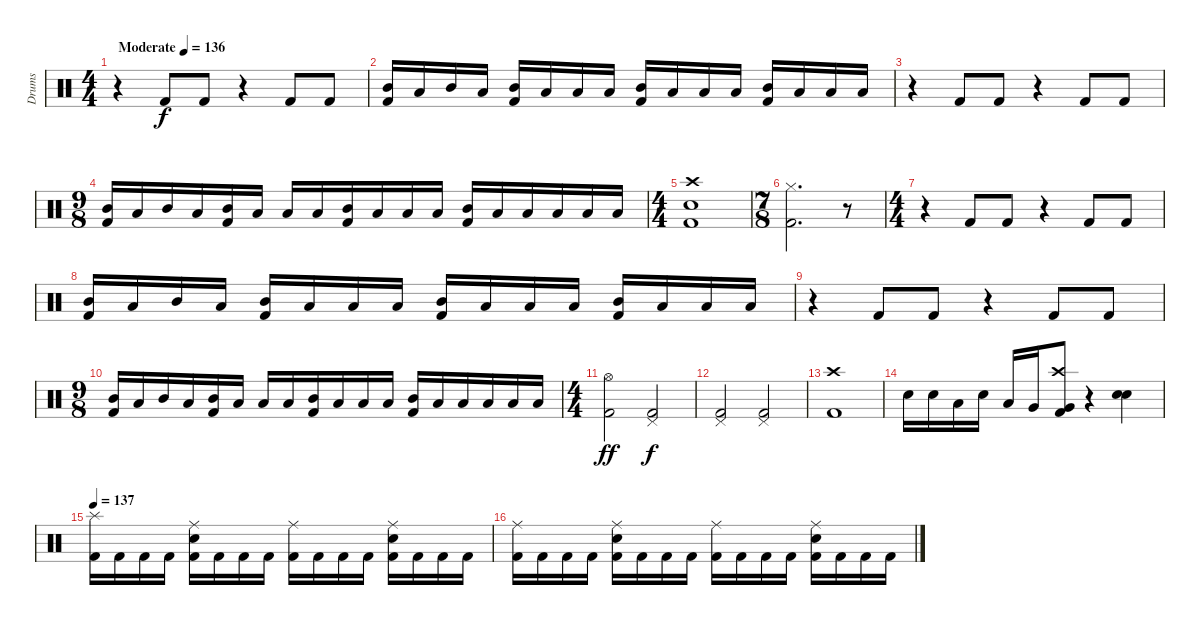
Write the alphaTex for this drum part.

\track ("Drums" "Drums") {instrument percussion}
\staff {score}
\articulation defaults
\ts (4 4)
\tempo (136 "Moderate")
\clef neutral
\ks c
r.4{dy f} "Kick (hit) 2".8 "Kick (hit) 2".8 r.4 "Kick (hit) 2".8 "Kick (hit) 2".8 |
("Mid Tom (hit)" "Kick (hit) 2").16 "Low Tom (hit)".16 "Mid Tom (hit)".16 "Low Tom (hit)".16 ("Mid Tom (hit)" "Kick (hit) 2").16 "Low Tom (hit)".16 "Low Tom (hit)".16 "Low Tom (hit)".16 ("Mid Tom (hit)" "Kick (hit) 2").16 "Low Tom (hit)".16 "Low Tom (hit)".16 "Low Tom (hit)".16 ("Mid Tom (hit)" "Kick (hit) 2").16 "Low Tom (hit)".16 "Low Tom (hit)".16 "Low Tom (hit)".16 |
r.4 "Kick (hit) 2".8 "Kick (hit) 2".8 r.4 "Kick (hit) 2".8 "Kick (hit) 2".8 |
\ts (9 8)
("Mid Tom (hit)" "Kick (hit) 2").16 "Low Tom (hit)".16 "Mid Tom (hit)".16 "Low Tom (hit)".16 ("Mid Tom (hit)" "Kick (hit) 2").16 "Low Tom (hit)".16 "Low Tom (hit)".16 "Low Tom (hit)".16 ("Mid Tom (hit)" "Kick (hit) 2").16 "Low Tom (hit)".16 "Low Tom (hit)".16 "Low Tom (hit)".16 ("Mid Tom (hit)" "Kick (hit) 2").16 "Low Tom (hit)".16 "Low Tom (hit)".16 "Low Tom (hit)".16 "Low Tom (hit)".16 "Low Tom (hit)".16 |
\ts (4 4)
("Crash high (hit)" "Electric Snare (hit)" "Kick (hit) 2").1 |
\ts (7 8)
("Hi-Hat (closed)" "Kick (hit) 2").2{d} r.8 |
\ts (4 4)
r.4 "Kick (hit) 2".8 "Kick (hit) 2".8 r.4 "Kick (hit) 2".8 "Kick (hit) 2".8 |
("Mid Tom (hit)" "Kick (hit) 2").16 "Low Tom (hit)".16 "Mid Tom (hit)".16 "Low Tom (hit)".16 ("Mid Tom (hit)" "Kick (hit) 2").16 "Low Tom (hit)".16 "Low Tom (hit)".16 "Low Tom (hit)".16 ("Mid Tom (hit)" "Kick (hit) 2").16 "Low Tom (hit)".16 "Low Tom (hit)".16 "Low Tom (hit)".16 ("Mid Tom (hit)" "Kick (hit) 2").16 "Low Tom (hit)".16 "Low Tom (hit)".16 "Low Tom (hit)".16 |
r.4 "Kick (hit) 2".8 "Kick (hit) 2".8 r.4 "Kick (hit) 2".8 "Kick (hit) 2".8 |
\ts (9 8)
("Mid Tom (hit)" "Kick (hit) 2").16 "Low Tom (hit)".16 "Mid Tom (hit)".16 "Low Tom (hit)".16 ("Mid Tom (hit)" "Kick (hit) 2").16 "Low Tom (hit)".16 "Low Tom (hit)".16 "Low Tom (hit)".16 ("Mid Tom (hit)" "Kick (hit) 2").16 "Low Tom (hit)".16 "Low Tom (hit)".16 "Low Tom (hit)".16 ("Mid Tom (hit)" "Kick (hit) 2").16 "Low Tom (hit)".16 "Low Tom (hit)".16 "Low Tom (hit)".16 "Low Tom (hit)".16 "Low Tom (hit)".16 |
\ts (4 4)
("Hi-Hat (open)" "Kick (hit) 2").2{dy ff} ("Pedal Hi-Hat (hit)" "Kick (hit) 2").2{dy f} |
("Pedal Hi-Hat (hit)" "Kick (hit) 2").2 ("Pedal Hi-Hat (hit)" "Kick (hit) 2").2 |
("Crash high (hit)" "Kick (hit) 2").1 |
"Electric Snare (hit)".16 "Electric Snare (hit)".16 "Low Tom (hit)".16 "Electric Snare (hit)".16 "Low Tom (hit)".16 "Very Low Tom (hit)".16 ("Crash high (hit)" "Very Low Tom (hit)" "Kick (hit) 2").8 r.4 ("Electric Snare (hit)" "Snare (hit) 2").4 |
\tempo 137
("Splash (hit)" "Kick (hit) 2").16 "Kick (hit) 2".16 "Kick (hit) 2".16 "Kick (hit) 2".16 ("Ride (middle)" "Electric Snare (hit)" "Kick (hit) 2").16 "Kick (hit) 2".16 "Kick (hit) 2".16 "Kick (hit) 2".16 ("Ride (middle)" "Kick (hit) 2").16 "Kick (hit) 2".16 "Kick (hit) 2".16 "Kick (hit) 2".16 ("Ride (middle)" "Electric Snare (hit)" "Kick (hit) 2").16 "Kick (hit) 2".16 "Kick (hit) 2".16 "Kick (hit) 2".16 |
("Ride (middle)" "Kick (hit) 2").16 "Kick (hit) 2".16 "Kick (hit) 2".16 "Kick (hit) 2".16 ("Ride (middle)" "Electric Snare (hit)" "Kick (hit) 2").16 "Kick (hit) 2".16 "Kick (hit) 2".16 "Kick (hit) 2".16 ("Ride (middle)" "Kick (hit) 2").16 "Kick (hit) 2".16 "Kick (hit) 2".16 "Kick (hit) 2".16 ("Ride (middle)" "Electric Snare (hit)" "Kick (hit) 2").16 "Kick (hit) 2".16 "Kick (hit) 2".16 "Kick (hit) 2".16
